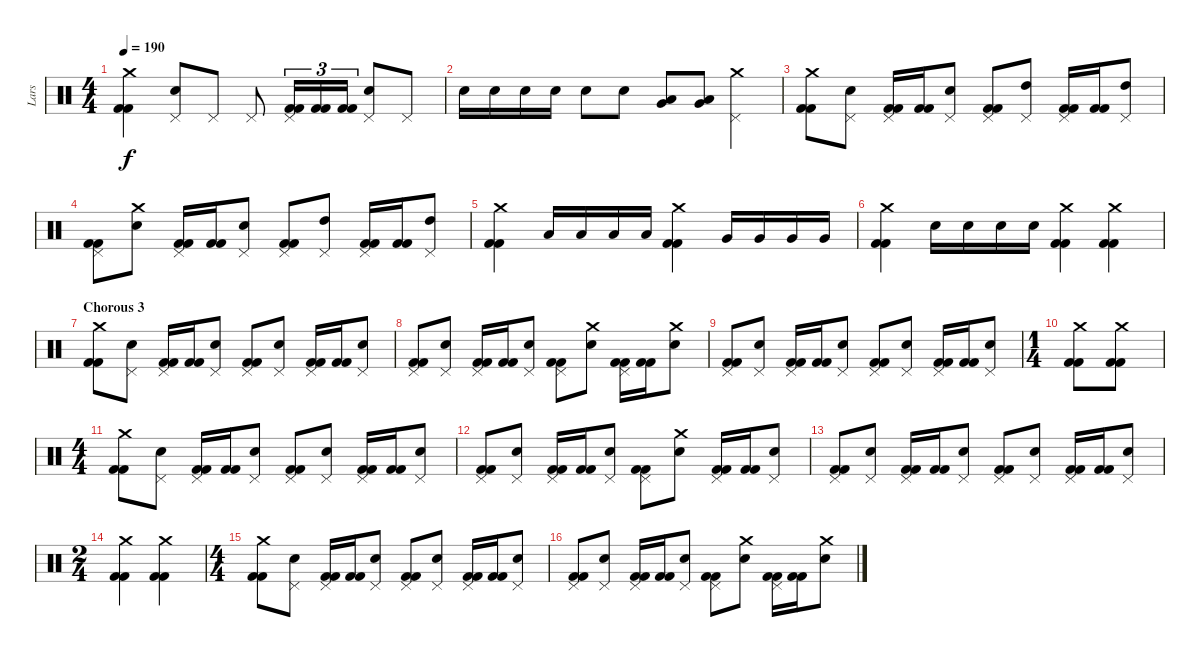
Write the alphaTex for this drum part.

\track ("Lars" "Lars") {instrument percussion}
\staff {score}
\articulation defaults
\ts (4 4)
\tempo 190
\clef neutral
\ks c
("Crash medium (hit)" "Kick (hit) 2" "Kick (hit) 2").4{dy f} ("Pedal Hi-Hat (hit)" "Electric Snare (hit)").8 "Pedal Hi-Hat (hit)".8 "Pedal Hi-Hat (hit)".8 ("Pedal Hi-Hat (hit)" "Kick (hit) 2" "Kick (hit) 2").16{tu (3 2)} ("Kick (hit) 2" "Kick (hit) 2").16{tu (3 2)} ("Kick (hit) 2" "Kick (hit) 2").16{tu (3 2)} ("Pedal Hi-Hat (hit)" "Electric Snare (hit)").8 "Pedal Hi-Hat (hit)".8 |
"Electric Snare (hit)".16 "Electric Snare (hit)".16 "Electric Snare (hit)".16 "Electric Snare (hit)".16 "Electric Snare (hit)".8 "Electric Snare (hit)".8 ("Low Tom (hit)" "Very Low Tom (hit)").8 ("Low Tom (hit)" "Very Low Tom (hit)").8 ("Pedal Hi-Hat (hit)" "Crash medium (hit)").4 |
("Crash medium (hit)" "Kick (hit) 2" "Kick (hit) 2").8 ("Pedal Hi-Hat (hit)" "Electric Snare (hit)").8 ("Pedal Hi-Hat (hit)" "Kick (hit) 2" "Kick (hit) 2").16 ("Kick (hit) 2" "Kick (hit) 2").16 ("Pedal Hi-Hat (hit)" "Electric Snare (hit)").8 ("Pedal Hi-Hat (hit)" "Kick (hit) 2" "Kick (hit) 2").8 ("Pedal Hi-Hat (hit)" "High Tom (hit)").8 ("Pedal Hi-Hat (hit)" "Kick (hit) 2" "Kick (hit) 2").16 ("Kick (hit) 2" "Kick (hit) 2").16 ("Pedal Hi-Hat (hit)" "High Tom (hit)").8 |
("Pedal Hi-Hat (hit)" "Kick (hit) 2" "Kick (hit) 2").8 ("Crash medium (hit)" "Electric Snare (hit)").8 ("Pedal Hi-Hat (hit)" "Kick (hit) 2" "Kick (hit) 2").16 ("Kick (hit) 2" "Kick (hit) 2").16 ("Pedal Hi-Hat (hit)" "Electric Snare (hit)").8 ("Pedal Hi-Hat (hit)" "Kick (hit) 2" "Kick (hit) 2").8 ("Pedal Hi-Hat (hit)" "High Tom (hit)").8 ("Pedal Hi-Hat (hit)" "Kick (hit) 2" "Kick (hit) 2").16 ("Kick (hit) 2" "Kick (hit) 2").16 ("Pedal Hi-Hat (hit)" "High Tom (hit)").8 |
("Crash medium (hit)" "Kick (hit) 2" "Kick (hit) 2").4 "Low Tom (hit)".16 "Low Tom (hit)".16 "Low Tom (hit)".16 "Low Tom (hit)".16 ("Crash medium (hit)" "Kick (hit) 2" "Kick (hit) 2").4 "Very Low Tom (hit)".16 "Very Low Tom (hit)".16 "Very Low Tom (hit)".16 "Very Low Tom (hit)".16 |
("Crash medium (hit)" "Kick (hit) 2" "Kick (hit) 2").4 "Electric Snare (hit)".16 "Electric Snare (hit)".16 "Electric Snare (hit)".16 "Electric Snare (hit)".16 ("Crash medium (hit)" "Kick (hit) 2" "Kick (hit) 2").4 ("Crash medium (hit)" "Kick (hit) 2" "Kick (hit) 2").4 |
\section ("" "Chorous 3")
("Crash medium (hit)" "Kick (hit) 2" "Kick (hit) 2").8 ("Pedal Hi-Hat (hit)" "Electric Snare (hit)").8 ("Pedal Hi-Hat (hit)" "Kick (hit) 2" "Kick (hit) 2").16 ("Kick (hit) 2" "Kick (hit) 2").16 ("Pedal Hi-Hat (hit)" "Electric Snare (hit)").8 ("Pedal Hi-Hat (hit)" "Kick (hit) 2" "Kick (hit) 2").8 ("Pedal Hi-Hat (hit)" "Electric Snare (hit)").8 ("Pedal Hi-Hat (hit)" "Kick (hit) 2" "Kick (hit) 2").16 ("Kick (hit) 2" "Kick (hit) 2").16 ("Pedal Hi-Hat (hit)" "Electric Snare (hit)").8 |
("Pedal Hi-Hat (hit)" "Kick (hit) 2" "Kick (hit) 2").8 ("Pedal Hi-Hat (hit)" "Electric Snare (hit)").8 ("Pedal Hi-Hat (hit)" "Kick (hit) 2" "Kick (hit) 2").16 ("Kick (hit) 2" "Kick (hit) 2").16 ("Pedal Hi-Hat (hit)" "Electric Snare (hit)").8 ("Pedal Hi-Hat (hit)" "Kick (hit) 2" "Kick (hit) 2").8 ("Crash medium (hit)" "Electric Snare (hit)").8 ("Pedal Hi-Hat (hit)" "Kick (hit) 2" "Kick (hit) 2").16 ("Kick (hit) 2" "Kick (hit) 2").16 ("Crash medium (hit)" "Electric Snare (hit)").8 |
("Pedal Hi-Hat (hit)" "Kick (hit) 2" "Kick (hit) 2").8 ("Pedal Hi-Hat (hit)" "Electric Snare (hit)").8 ("Pedal Hi-Hat (hit)" "Kick (hit) 2" "Kick (hit) 2").16 ("Kick (hit) 2" "Kick (hit) 2").16 ("Pedal Hi-Hat (hit)" "Electric Snare (hit)").8 ("Pedal Hi-Hat (hit)" "Kick (hit) 2" "Kick (hit) 2").8 ("Pedal Hi-Hat (hit)" "Electric Snare (hit)").8 ("Pedal Hi-Hat (hit)" "Kick (hit) 2" "Kick (hit) 2").16 ("Kick (hit) 2" "Kick (hit) 2").16 ("Pedal Hi-Hat (hit)" "Electric Snare (hit)").8 |
\ts (1 4)
("Crash medium (hit)" "Kick (hit) 2" "Kick (hit) 2").8 ("Crash medium (hit)" "Kick (hit) 2" "Kick (hit) 2").8 |
\ts (4 4)
("Crash medium (hit)" "Kick (hit) 2" "Kick (hit) 2").8 ("Pedal Hi-Hat (hit)" "Electric Snare (hit)").8 ("Pedal Hi-Hat (hit)" "Kick (hit) 2" "Kick (hit) 2").16 ("Kick (hit) 2" "Kick (hit) 2").16 ("Pedal Hi-Hat (hit)" "Electric Snare (hit)").8 ("Pedal Hi-Hat (hit)" "Kick (hit) 2" "Kick (hit) 2").8 ("Pedal Hi-Hat (hit)" "Electric Snare (hit)").8 ("Pedal Hi-Hat (hit)" "Kick (hit) 2" "Kick (hit) 2").16 ("Kick (hit) 2" "Kick (hit) 2").16 ("Pedal Hi-Hat (hit)" "Electric Snare (hit)").8 |
("Pedal Hi-Hat (hit)" "Kick (hit) 2" "Kick (hit) 2").8 ("Pedal Hi-Hat (hit)" "Electric Snare (hit)").8 ("Pedal Hi-Hat (hit)" "Kick (hit) 2" "Kick (hit) 2").16 ("Kick (hit) 2" "Kick (hit) 2").16 ("Pedal Hi-Hat (hit)" "Electric Snare (hit)").8 ("Pedal Hi-Hat (hit)" "Kick (hit) 2" "Kick (hit) 2").8 ("Crash medium (hit)" "Electric Snare (hit)").8 ("Pedal Hi-Hat (hit)" "Kick (hit) 2" "Kick (hit) 2").16 ("Kick (hit) 2" "Kick (hit) 2").16 ("Pedal Hi-Hat (hit)" "Electric Snare (hit)").8 |
("Pedal Hi-Hat (hit)" "Kick (hit) 2" "Kick (hit) 2").8 ("Pedal Hi-Hat (hit)" "Electric Snare (hit)").8 ("Pedal Hi-Hat (hit)" "Kick (hit) 2" "Kick (hit) 2").16 ("Kick (hit) 2" "Kick (hit) 2").16 ("Pedal Hi-Hat (hit)" "Electric Snare (hit)").8 ("Pedal Hi-Hat (hit)" "Kick (hit) 2" "Kick (hit) 2").8 ("Pedal Hi-Hat (hit)" "Electric Snare (hit)").8 ("Pedal Hi-Hat (hit)" "Kick (hit) 2" "Kick (hit) 2").16 ("Kick (hit) 2" "Kick (hit) 2").16 ("Pedal Hi-Hat (hit)" "Electric Snare (hit)").8 |
\ts (2 4)
("Crash medium (hit)" "Kick (hit) 2" "Kick (hit) 2").4 ("Crash medium (hit)" "Kick (hit) 2" "Kick (hit) 2").4 |
\ts (4 4)
("Crash medium (hit)" "Kick (hit) 2" "Kick (hit) 2").8 ("Pedal Hi-Hat (hit)" "Electric Snare (hit)").8 ("Pedal Hi-Hat (hit)" "Kick (hit) 2" "Kick (hit) 2").16 ("Kick (hit) 2" "Kick (hit) 2").16 ("Pedal Hi-Hat (hit)" "Electric Snare (hit)").8 ("Pedal Hi-Hat (hit)" "Kick (hit) 2" "Kick (hit) 2").8 ("Pedal Hi-Hat (hit)" "Electric Snare (hit)").8 ("Pedal Hi-Hat (hit)" "Kick (hit) 2" "Kick (hit) 2").16 ("Kick (hit) 2" "Kick (hit) 2").16 ("Pedal Hi-Hat (hit)" "Electric Snare (hit)").8 |
("Pedal Hi-Hat (hit)" "Kick (hit) 2" "Kick (hit) 2").8 ("Pedal Hi-Hat (hit)" "Electric Snare (hit)").8 ("Pedal Hi-Hat (hit)" "Kick (hit) 2" "Kick (hit) 2").16 ("Kick (hit) 2" "Kick (hit) 2").16 ("Pedal Hi-Hat (hit)" "Electric Snare (hit)").8 ("Pedal Hi-Hat (hit)" "Kick (hit) 2" "Kick (hit) 2").8 ("Crash medium (hit)" "Electric Snare (hit)").8 ("Pedal Hi-Hat (hit)" "Kick (hit) 2" "Kick (hit) 2").16 ("Kick (hit) 2" "Kick (hit) 2").16 ("Crash medium (hit)" "Electric Snare (hit)").8
